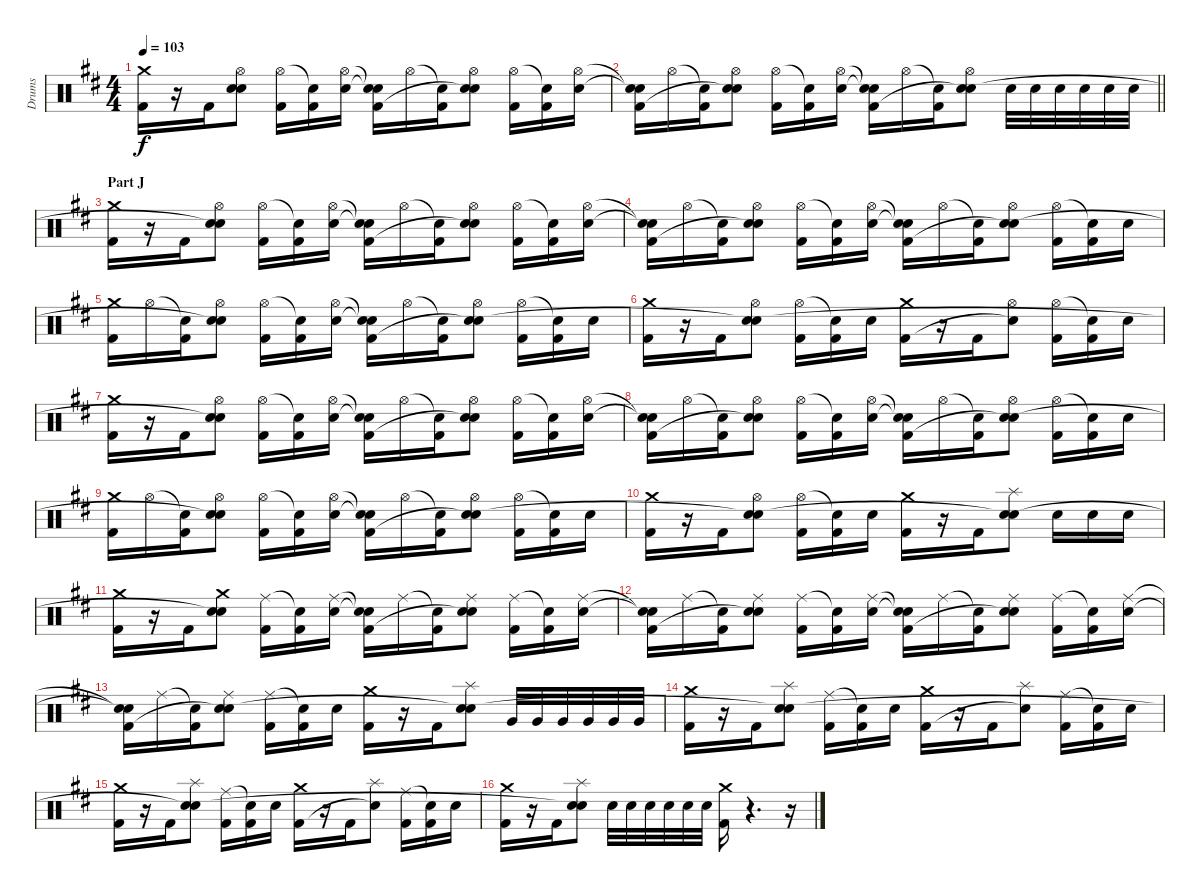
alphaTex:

\track ("Drums" "Drums") {instrument percussion}
\staff {score}
\articulation defaults
\ts (4 4)
\tempo 103
\clef neutral
\ks d
("Crash medium (hit)" "Kick (hit) 2").16{dy f} r.16 "Kick (hit) 2".16 ("Hi-Hat (open)" "Electric Snare (hit)" "Snare (hit)"{t}).8 ("Hi-Hat (open)" "Kick (hit) 2").16 ("Snare (hit)"{t} "Kick (hit) 2").16 ("Hi-Hat (open)" "Electric Snare (hit)").16 ("Snare (hit)"{t} "Snare (hit)"{t} "Kick (hit) 2").16 "Hi-Hat (open)".16 ("Snare (hit)"{t} "Kick (hit) 2").16 ("Hi-Hat (open)" "Electric Snare (hit)" "Snare (hit)"{t}).8 ("Hi-Hat (open)" "Kick (hit) 2").16 ("Snare (hit)"{t} "Kick (hit) 2").16 ("Hi-Hat (open)" "Electric Snare (hit)").16 |
\barLineRight lightlight
("Snare (hit)"{t} "Snare (hit)"{t} "Kick (hit) 2").16 "Hi-Hat (open)".16 ("Snare (hit)"{t} "Kick (hit) 2").16 ("Hi-Hat (open)" "Electric Snare (hit)" "Snare (hit)"{t}).8 ("Hi-Hat (open)" "Kick (hit) 2").16 ("Snare (hit)"{t} "Kick (hit) 2").16 ("Hi-Hat (open)" "Electric Snare (hit)").16 ("Snare (hit)"{t} "Snare (hit)"{t} "Kick (hit) 2").16 "Hi-Hat (open)".16 ("Snare (hit)"{t} "Kick (hit) 2").16 ("Hi-Hat (open)" "Electric Snare (hit)" "Snare (hit)"{t}).8 "Electric Snare (hit)".32 "Electric Snare (hit)".32 "Electric Snare (hit)".32 "Electric Snare (hit)".32 "Electric Snare (hit)".32 "Electric Snare (hit)".32 |
\section ("" "Part J")
("Crash medium (hit)" "Kick (hit) 2").16 r.16 "Kick (hit) 2".16 ("Hi-Hat (open)" "Electric Snare (hit)" "Snare (hit)"{t}).8 ("Hi-Hat (open)" "Kick (hit) 2").16 ("Snare (hit)"{t} "Kick (hit) 2").16 ("Hi-Hat (open)" "Electric Snare (hit)").16 ("Snare (hit)"{t} "Snare (hit)"{t} "Kick (hit) 2").16 "Hi-Hat (open)".16 ("Snare (hit)"{t} "Kick (hit) 2").16 ("Hi-Hat (open)" "Electric Snare (hit)" "Snare (hit)"{t}).8 ("Hi-Hat (open)" "Kick (hit) 2").16 ("Snare (hit)"{t} "Kick (hit) 2").16 ("Hi-Hat (open)" "Electric Snare (hit)").16 |
("Snare (hit)"{t} "Snare (hit)"{t} "Kick (hit) 2").16 "Hi-Hat (open)".16 ("Snare (hit)"{t} "Kick (hit) 2").16 ("Hi-Hat (open)" "Electric Snare (hit)" "Snare (hit)"{t}).8 ("Hi-Hat (open)" "Kick (hit) 2").16 ("Snare (hit)"{t} "Kick (hit) 2").16 ("Hi-Hat (open)" "Electric Snare (hit)").16 ("Snare (hit)"{t} "Snare (hit)"{t} "Kick (hit) 2").16 "Hi-Hat (open)".16 ("Snare (hit)"{t} "Kick (hit) 2").16 ("Hi-Hat (open)" "Electric Snare (hit)" "Snare (hit)"{t}).8 ("Hi-Hat (open)" "Kick (hit) 2").16 ("Snare (hit)"{t} "Kick (hit) 2").16 "Electric Snare (hit)".16 |
("Crash medium (hit)" "Kick (hit) 2").16 "Hi-Hat (open)".16 ("Snare (hit)"{t} "Kick (hit) 2").16 ("Hi-Hat (open)" "Electric Snare (hit)" "Snare (hit)"{t}).8 ("Hi-Hat (open)" "Kick (hit) 2").16 ("Snare (hit)"{t} "Kick (hit) 2").16 ("Hi-Hat (open)" "Electric Snare (hit)").16 ("Snare (hit)"{t} "Snare (hit)"{t} "Kick (hit) 2").16 "Hi-Hat (open)".16 ("Snare (hit)"{t} "Kick (hit) 2").16 ("Hi-Hat (open)" "Electric Snare (hit)" "Snare (hit)"{t}).8 ("Hi-Hat (open)" "Kick (hit) 2").16 ("Snare (hit)"{t} "Kick (hit) 2").16 "Electric Snare (hit)".16 |
("Crash medium (hit)" "Kick (hit) 2").16 r.16 "Kick (hit) 2".16 ("Hi-Hat (open)" "Electric Snare (hit)" "Snare (hit)"{t}).8 ("Hi-Hat (open)" "Kick (hit) 2").16 ("Snare (hit)"{t} "Kick (hit) 2").16 "Electric Snare (hit)".16 ("Crash medium (hit)" "Kick (hit) 2").16 r.16 "Kick (hit) 2".16 ("Hi-Hat (open)" "Snare (hit)"{t}).8 ("Hi-Hat (open)" "Kick (hit) 2").16 ("Snare (hit)"{t} "Kick (hit) 2").16 "Electric Snare (hit)".16 |
("Crash medium (hit)" "Kick (hit) 2").16 r.16 "Kick (hit) 2".16 ("Hi-Hat (open)" "Electric Snare (hit)" "Snare (hit)"{t}).8 ("Hi-Hat (open)" "Kick (hit) 2").16 ("Snare (hit)"{t} "Kick (hit) 2").16 ("Hi-Hat (open)" "Electric Snare (hit)").16 ("Snare (hit)"{t} "Snare (hit)"{t} "Kick (hit) 2").16 "Hi-Hat (open)".16 ("Snare (hit)"{t} "Kick (hit) 2").16 ("Hi-Hat (open)" "Electric Snare (hit)" "Snare (hit)"{t}).8 ("Hi-Hat (open)" "Kick (hit) 2").16 ("Snare (hit)"{t} "Kick (hit) 2").16 ("Hi-Hat (open)" "Electric Snare (hit)").16 |
("Snare (hit)"{t} "Snare (hit)"{t} "Kick (hit) 2").16 "Hi-Hat (open)".16 ("Snare (hit)"{t} "Kick (hit) 2").16 ("Hi-Hat (open)" "Electric Snare (hit)" "Snare (hit)"{t}).8 ("Hi-Hat (open)" "Kick (hit) 2").16 ("Snare (hit)"{t} "Kick (hit) 2").16 ("Hi-Hat (open)" "Electric Snare (hit)").16 ("Snare (hit)"{t} "Snare (hit)"{t} "Kick (hit) 2").16 "Hi-Hat (open)".16 ("Snare (hit)"{t} "Kick (hit) 2").16 ("Hi-Hat (open)" "Electric Snare (hit)" "Snare (hit)"{t}).8 ("Hi-Hat (open)" "Kick (hit) 2").16 ("Snare (hit)"{t} "Kick (hit) 2").16 "Electric Snare (hit)".16 |
("Crash medium (hit)" "Kick (hit) 2").16 "Hi-Hat (open)".16 ("Snare (hit)"{t} "Kick (hit) 2").16 ("Hi-Hat (open)" "Electric Snare (hit)" "Snare (hit)"{t}).8 ("Hi-Hat (open)" "Kick (hit) 2").16 ("Snare (hit)"{t} "Kick (hit) 2").16 ("Hi-Hat (open)" "Electric Snare (hit)").16 ("Snare (hit)"{t} "Snare (hit)"{t} "Kick (hit) 2").16 "Hi-Hat (open)".16 ("Snare (hit)"{t} "Kick (hit) 2").16 ("Hi-Hat (open)" "Electric Snare (hit)" "Snare (hit)"{t}).8 ("Hi-Hat (open)" "Kick (hit) 2").16 ("Snare (hit)"{t} "Kick (hit) 2").16 "Electric Snare (hit)".16 |
("Crash medium (hit)" "Kick (hit) 2").16 r.16 "Kick (hit) 2".16 ("Hi-Hat (open)" "Electric Snare (hit)" "Snare (hit)"{t}).8 ("Hi-Hat (open)" "Kick (hit) 2").16 ("Snare (hit)"{t} "Kick (hit) 2").16 "Electric Snare (hit)".16 ("Crash medium (hit)" "Kick (hit) 2").16 r.16 "Kick (hit) 2".16 ("Splash (hit)" "Electric Snare (hit)" "Snare (hit)"{t}).8 "Electric Snare (hit)".16 "Electric Snare (hit)".16 "Electric Snare (hit)".16 |
("Crash medium (hit)" "Kick (hit) 2").16 r.16 "Kick (hit) 2".16 ("Crash medium (hit)" "Electric Snare (hit)" "Snare (hit)"{t}).8 ("Ride (middle)" "Kick (hit) 2").16 ("Snare (hit)"{t} "Kick (hit) 2").16 ("Ride (middle)" "Electric Snare (hit)").16 ("Snare (hit)"{t} "Snare (hit)"{t} "Kick (hit) 2").16 "Ride (middle)".16 ("Snare (hit)"{t} "Kick (hit) 2").16 ("Ride (middle)" "Electric Snare (hit)" "Snare (hit)"{t}).8 ("Ride (middle)" "Kick (hit) 2").16 ("Snare (hit)"{t} "Kick (hit) 2").16 ("Ride (middle)" "Electric Snare (hit)").16 |
("Snare (hit)"{t} "Snare (hit)"{t} "Kick (hit) 2").16 "Ride (middle)".16 ("Snare (hit)"{t} "Kick (hit) 2").16 ("Ride (middle)" "Electric Snare (hit)" "Snare (hit)"{t}).8 ("Ride (middle)" "Kick (hit) 2").16 ("Snare (hit)"{t} "Kick (hit) 2").16 ("Ride (middle)" "Electric Snare (hit)").16 ("Snare (hit)"{t} "Snare (hit)"{t} "Kick (hit) 2").16 "Ride (middle)".16 ("Snare (hit)"{t} "Kick (hit) 2").16 ("Ride (middle)" "Electric Snare (hit)" "Snare (hit)"{t}).8 ("Ride (middle)" "Kick (hit) 2").16 ("Snare (hit)"{t} "Kick (hit) 2").16 ("Ride (middle)" "Electric Snare (hit)").16 |
("Snare (hit)"{t} "Snare (hit)"{t} "Kick (hit) 2").16 "Ride (middle)".16 ("Snare (hit)"{t} "Kick (hit) 2").16 ("Ride (middle)" "Electric Snare (hit)" "Snare (hit)"{t}).8 ("Ride (middle)" "Kick (hit) 2").16 ("Snare (hit)"{t} "Kick (hit) 2").16 "Electric Snare (hit)".16 ("Crash medium (hit)" "Kick (hit) 2").16 r.16 "Kick (hit) 2".16 ("Splash (hit)" "Electric Snare (hit)" "Snare (hit)"{t}).8 "Very Low Tom (hit)".32 "Very Low Tom (hit)".32 "Very Low Tom (hit)".32 "Very Low Tom (hit)".32 "Very Low Tom (hit)".32 "Very Low Tom (hit)".32 |
("Crash medium (hit)" "Kick (hit) 2").16 r.16 "Kick (hit) 2".16 ("Splash (hit)" "Electric Snare (hit)" "Snare (hit)"{t}).8 ("Ride (middle)" "Kick (hit) 2").16 ("Snare (hit)"{t} "Kick (hit) 2").16 "Electric Snare (hit)".16 ("Crash medium (hit)" "Kick (hit) 2").16 r.16 "Kick (hit) 2".16 ("Splash (hit)" "Snare (hit)"{t}).8 ("Ride (middle)" "Kick (hit) 2").16 ("Snare (hit)"{t} "Kick (hit) 2").16 "Electric Snare (hit)".16 |
("Crash medium (hit)" "Kick (hit) 2").16 r.16 "Kick (hit) 2".16 ("Splash (hit)" "Electric Snare (hit)" "Snare (hit)"{t}).8 ("Ride (middle)" "Kick (hit) 2").16 ("Snare (hit)"{t} "Kick (hit) 2").16 "Electric Snare (hit)".16 ("Crash medium (hit)" "Kick (hit) 2").16 r.16 "Kick (hit) 2".16 ("Splash (hit)" "Snare (hit)"{t}).8 ("Ride (middle)" "Kick (hit) 2").16 ("Snare (hit)"{t} "Kick (hit) 2").16 "Electric Snare (hit)".16 |
("Crash medium (hit)" "Kick (hit) 2").16 r.16 "Kick (hit) 2".16 ("Splash (hit)" "Electric Snare (hit)" "Snare (hit)"{t}).8 "Electric Snare (hit)".32 "Electric Snare (hit)".32 "Electric Snare (hit)".32 "Electric Snare (hit)".32 "Electric Snare (hit)".32 "Electric Snare (hit)".32 ("Crash medium (hit)" "Kick (hit) 2").16 r.4{d} r.16
